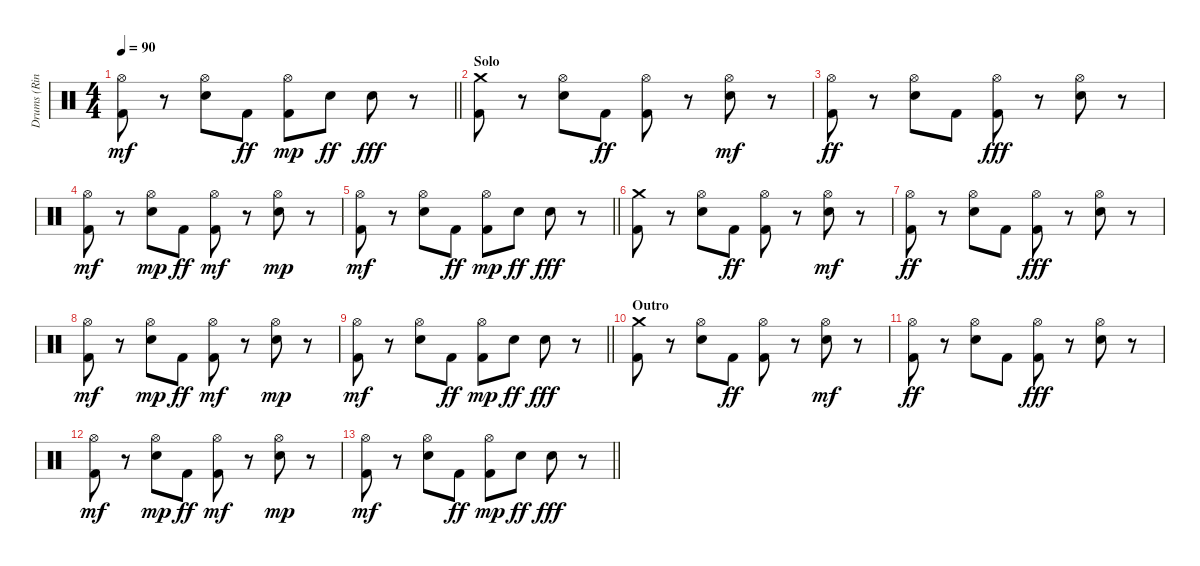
\track ("Drums (Ringo Starr)" "Drums (Rin") {instrument percussion}
\staff {score}
\articulation defaults
\ts (4 4)
\tempo 90
\clef neutral
\barLineRight lightlight
\ks c
("Kick (hit) 2" "Hi-Hat (open)").8{dy mf} r.8 ("Electric Snare (hit)" "Hi-Hat (open)").8 "Kick (hit) 2".8{dy ff} ("Kick (hit) 2" "Hi-Hat (open)").8{dy mp} "Electric Snare (hit)".8{dy ff} "Electric Snare (hit)".8{dy fff} r.8 |
\section ("" "Solo")
("Crash medium (hit)" "Kick (hit) 2").8 r.8 ("Hi-Hat (open)" "Electric Snare (hit)").8 "Kick (hit) 2".8{dy ff} ("Kick (hit) 2" "Hi-Hat (open)").8 r.8 ("Electric Snare (hit)" "Hi-Hat (open)").8{dy mf} r.8 |
("Hi-Hat (open)" "Kick (hit) 2").8{dy ff} r.8 ("Hi-Hat (open)" "Electric Snare (hit)").8 "Kick (hit) 2".8 ("Hi-Hat (open)" "Kick (hit) 2").8{dy fff} r.8 ("Electric Snare (hit)" "Hi-Hat (open)").8 r.8 |
("Kick (hit) 2" "Hi-Hat (open)").8{dy mf} r.8 ("Electric Snare (hit)" "Hi-Hat (open)").8{dy mp} "Kick (hit) 2".8{dy ff} ("Kick (hit) 2" "Hi-Hat (open)").8{dy mf} r.8 ("Electric Snare (hit)" "Hi-Hat (open)").8{dy mp} r.8 |
\barLineRight lightlight
("Kick (hit) 2" "Hi-Hat (open)").8{dy mf} r.8 ("Electric Snare (hit)" "Hi-Hat (open)").8 "Kick (hit) 2".8{dy ff} ("Kick (hit) 2" "Hi-Hat (open)").8{dy mp} "Electric Snare (hit)".8{dy ff} "Electric Snare (hit)".8{dy fff} r.8 |
("Crash medium (hit)" "Kick (hit) 2").8 r.8 ("Hi-Hat (open)" "Electric Snare (hit)").8 "Kick (hit) 2".8{dy ff} ("Kick (hit) 2" "Hi-Hat (open)").8 r.8 ("Electric Snare (hit)" "Hi-Hat (open)").8{dy mf} r.8 |
("Hi-Hat (open)" "Kick (hit) 2").8{dy ff} r.8 ("Hi-Hat (open)" "Electric Snare (hit)").8 "Kick (hit) 2".8 ("Hi-Hat (open)" "Kick (hit) 2").8{dy fff} r.8 ("Electric Snare (hit)" "Hi-Hat (open)").8 r.8 |
("Kick (hit) 2" "Hi-Hat (open)").8{dy mf} r.8 ("Electric Snare (hit)" "Hi-Hat (open)").8{dy mp} "Kick (hit) 2".8{dy ff} ("Kick (hit) 2" "Hi-Hat (open)").8{dy mf} r.8 ("Electric Snare (hit)" "Hi-Hat (open)").8{dy mp} r.8 |
\barLineRight lightlight
("Kick (hit) 2" "Hi-Hat (open)").8{dy mf} r.8 ("Electric Snare (hit)" "Hi-Hat (open)").8 "Kick (hit) 2".8{dy ff} ("Kick (hit) 2" "Hi-Hat (open)").8{dy mp} "Electric Snare (hit)".8{dy ff} "Electric Snare (hit)".8{dy fff} r.8 |
\section ("" "Outro")
("Crash medium (hit)" "Kick (hit) 2").8 r.8 ("Hi-Hat (open)" "Electric Snare (hit)").8 "Kick (hit) 2".8{dy ff} ("Kick (hit) 2" "Hi-Hat (open)").8 r.8 ("Electric Snare (hit)" "Hi-Hat (open)").8{dy mf} r.8 |
("Hi-Hat (open)" "Kick (hit) 2").8{dy ff} r.8 ("Hi-Hat (open)" "Electric Snare (hit)").8 "Kick (hit) 2".8 ("Hi-Hat (open)" "Kick (hit) 2").8{dy fff} r.8 ("Electric Snare (hit)" "Hi-Hat (open)").8 r.8 |
("Kick (hit) 2" "Hi-Hat (open)").8{dy mf} r.8 ("Electric Snare (hit)" "Hi-Hat (open)").8{dy mp} "Kick (hit) 2".8{dy ff} ("Kick (hit) 2" "Hi-Hat (open)").8{dy mf} r.8 ("Electric Snare (hit)" "Hi-Hat (open)").8{dy mp} r.8 |
\barLineRight lightlight
("Kick (hit) 2" "Hi-Hat (open)").8{dy mf} r.8 ("Electric Snare (hit)" "Hi-Hat (open)").8 "Kick (hit) 2".8{dy ff} ("Kick (hit) 2" "Hi-Hat (open)").8{dy mp} "Electric Snare (hit)".8{dy ff} "Electric Snare (hit)".8{dy fff} r.8
